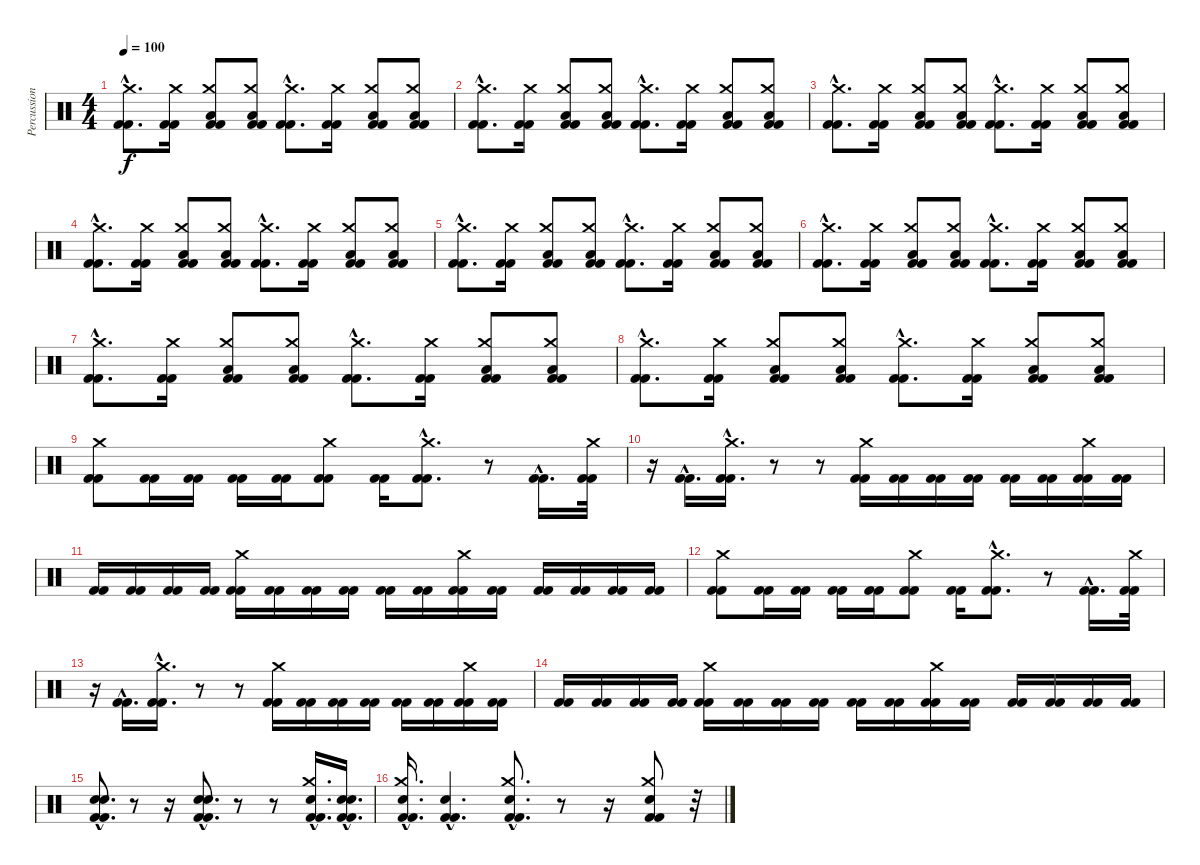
\track ("Percussion" "Percussion") {instrument percussion}
\staff {score}
\articulation defaults
\ts (4 4)
\tempo 100
\clef neutral
\ks c
("Kick (hit) 2"{hac} "Kick (hit) 2"{hac} "Crash medium (hit)"{hac}).8{d dy f} ("Kick (hit) 2" "Kick (hit) 2" "Crash medium (hit)").16 ("Kick (hit) 2" "Kick (hit) 2" "Low Tom (hit)" "Crash medium (hit)").8 ("Kick (hit) 2" "Kick (hit) 2" "Low Tom (hit)" "Crash medium (hit)").8 ("Kick (hit) 2"{hac} "Kick (hit) 2"{hac} "Crash medium (hit)"{hac}).8{d} ("Kick (hit) 2" "Kick (hit) 2" "Crash medium (hit)").16 ("Kick (hit) 2" "Kick (hit) 2" "Low Tom (hit)" "Crash medium (hit)").8 ("Kick (hit) 2" "Kick (hit) 2" "Low Tom (hit)" "Crash medium (hit)").8 |
("Kick (hit) 2"{hac} "Kick (hit) 2"{hac} "Crash medium (hit)"{hac}).8{d} ("Kick (hit) 2" "Kick (hit) 2" "Crash medium (hit)").16 ("Kick (hit) 2" "Kick (hit) 2" "Low Tom (hit)" "Crash medium (hit)").8 ("Kick (hit) 2" "Kick (hit) 2" "Low Tom (hit)" "Crash medium (hit)").8 ("Kick (hit) 2"{hac} "Kick (hit) 2"{hac} "Crash medium (hit)"{hac}).8{d} ("Kick (hit) 2" "Kick (hit) 2" "Crash medium (hit)").16 ("Kick (hit) 2" "Kick (hit) 2" "Low Tom (hit)" "Crash medium (hit)").8 ("Kick (hit) 2" "Kick (hit) 2" "Low Tom (hit)" "Crash medium (hit)").8 |
("Kick (hit) 2"{hac} "Kick (hit) 2"{hac} "Crash medium (hit)"{hac}).8{d} ("Kick (hit) 2" "Kick (hit) 2" "Crash medium (hit)").16 ("Kick (hit) 2" "Kick (hit) 2" "Low Tom (hit)" "Crash medium (hit)").8 ("Kick (hit) 2" "Kick (hit) 2" "Low Tom (hit)" "Crash medium (hit)").8 ("Kick (hit) 2"{hac} "Kick (hit) 2"{hac} "Crash medium (hit)"{hac}).8{d} ("Kick (hit) 2" "Kick (hit) 2" "Crash medium (hit)").16 ("Kick (hit) 2" "Kick (hit) 2" "Low Tom (hit)" "Crash medium (hit)").8 ("Kick (hit) 2" "Kick (hit) 2" "Low Tom (hit)" "Crash medium (hit)").8 |
("Kick (hit) 2"{hac} "Kick (hit) 2"{hac} "Crash medium (hit)"{hac}).8{d} ("Kick (hit) 2" "Kick (hit) 2" "Crash medium (hit)").16 ("Kick (hit) 2" "Kick (hit) 2" "Low Tom (hit)" "Crash medium (hit)").8 ("Kick (hit) 2" "Kick (hit) 2" "Low Tom (hit)" "Crash medium (hit)").8 ("Kick (hit) 2"{hac} "Kick (hit) 2"{hac} "Crash medium (hit)"{hac}).8{d} ("Kick (hit) 2" "Kick (hit) 2" "Crash medium (hit)").16 ("Kick (hit) 2" "Kick (hit) 2" "Low Tom (hit)" "Crash medium (hit)").8 ("Kick (hit) 2" "Kick (hit) 2" "Low Tom (hit)" "Crash medium (hit)").8 |
("Kick (hit) 2"{hac} "Kick (hit) 2"{hac} "Crash medium (hit)"{hac}).8{d} ("Kick (hit) 2" "Kick (hit) 2" "Crash medium (hit)").16 ("Kick (hit) 2" "Kick (hit) 2" "Low Tom (hit)" "Crash medium (hit)").8 ("Kick (hit) 2" "Kick (hit) 2" "Low Tom (hit)" "Crash medium (hit)").8 ("Kick (hit) 2"{hac} "Kick (hit) 2"{hac} "Crash medium (hit)"{hac}).8{d} ("Kick (hit) 2" "Kick (hit) 2" "Crash medium (hit)").16 ("Kick (hit) 2" "Kick (hit) 2" "Low Tom (hit)" "Crash medium (hit)").8 ("Kick (hit) 2" "Kick (hit) 2" "Low Tom (hit)" "Crash medium (hit)").8 |
("Kick (hit) 2"{hac} "Kick (hit) 2"{hac} "Crash medium (hit)"{hac}).8{d} ("Kick (hit) 2" "Kick (hit) 2" "Crash medium (hit)").16 ("Kick (hit) 2" "Kick (hit) 2" "Low Tom (hit)" "Crash medium (hit)").8 ("Kick (hit) 2" "Kick (hit) 2" "Low Tom (hit)" "Crash medium (hit)").8 ("Kick (hit) 2"{hac} "Kick (hit) 2"{hac} "Crash medium (hit)"{hac}).8{d} ("Kick (hit) 2" "Kick (hit) 2" "Crash medium (hit)").16 ("Kick (hit) 2" "Kick (hit) 2" "Low Tom (hit)" "Crash medium (hit)").8 ("Kick (hit) 2" "Kick (hit) 2" "Low Tom (hit)" "Crash medium (hit)").8 |
("Kick (hit) 2"{hac} "Kick (hit) 2"{hac} "Crash medium (hit)"{hac}).8{d} ("Kick (hit) 2" "Kick (hit) 2" "Crash medium (hit)").16 ("Kick (hit) 2" "Kick (hit) 2" "Low Tom (hit)" "Crash medium (hit)").8 ("Kick (hit) 2" "Kick (hit) 2" "Low Tom (hit)" "Crash medium (hit)").8 ("Kick (hit) 2"{hac} "Kick (hit) 2"{hac} "Crash medium (hit)"{hac}).8{d} ("Kick (hit) 2" "Kick (hit) 2" "Crash medium (hit)").16 ("Kick (hit) 2" "Kick (hit) 2" "Low Tom (hit)" "Crash medium (hit)").8 ("Kick (hit) 2" "Kick (hit) 2" "Low Tom (hit)" "Crash medium (hit)").8 |
("Kick (hit) 2"{hac} "Kick (hit) 2"{hac} "Crash medium (hit)"{hac}).8{d} ("Kick (hit) 2" "Kick (hit) 2" "Crash medium (hit)").16 ("Kick (hit) 2" "Kick (hit) 2" "Low Tom (hit)" "Crash medium (hit)").8 ("Kick (hit) 2" "Kick (hit) 2" "Low Tom (hit)" "Crash medium (hit)").8 ("Kick (hit) 2"{hac} "Kick (hit) 2"{hac} "Crash medium (hit)"{hac}).8{d} ("Kick (hit) 2" "Kick (hit) 2" "Crash medium (hit)").16 ("Kick (hit) 2" "Kick (hit) 2" "Low Tom (hit)" "Crash medium (hit)").8 ("Kick (hit) 2" "Kick (hit) 2" "Low Tom (hit)" "Crash medium (hit)").8 |
("Kick (hit) 2" "Kick (hit) 2" "Crash medium (hit)").8 ("Kick (hit) 2" "Kick (hit) 2").16 ("Kick (hit) 2" "Kick (hit) 2").16 ("Kick (hit) 2" "Kick (hit) 2").16 ("Kick (hit) 2" "Kick (hit) 2").16 ("Kick (hit) 2" "Kick (hit) 2" "Crash medium (hit)").8 ("Kick (hit) 2" "Kick (hit) 2").16 ("Kick (hit) 2"{hac} "Kick (hit) 2"{hac} "Crash medium (hit)"{hac}).8{d} r.8 ("Kick (hit) 2"{hac} "Kick (hit) 2"{hac}).16{d} ("Kick (hit) 2" "Kick (hit) 2" "Crash medium (hit)").32 |
r.16 ("Kick (hit) 2"{hac} "Kick (hit) 2"{hac}).16{d} ("Kick (hit) 2"{hac} "Kick (hit) 2"{hac} "Crash medium (hit)"{hac}).16{d} r.8 r.8 ("Kick (hit) 2" "Kick (hit) 2" "Crash medium (hit)").16 ("Kick (hit) 2" "Kick (hit) 2").16 ("Kick (hit) 2" "Kick (hit) 2").16 ("Kick (hit) 2" "Kick (hit) 2").16 ("Kick (hit) 2" "Kick (hit) 2").16 ("Kick (hit) 2" "Kick (hit) 2").16 ("Kick (hit) 2" "Kick (hit) 2" "Crash medium (hit)").16 ("Kick (hit) 2" "Kick (hit) 2").16 |
("Kick (hit) 2" "Kick (hit) 2").16 ("Kick (hit) 2" "Kick (hit) 2").16 ("Kick (hit) 2" "Kick (hit) 2").16 ("Kick (hit) 2" "Kick (hit) 2").16 ("Kick (hit) 2" "Kick (hit) 2" "Crash medium (hit)").16 ("Kick (hit) 2" "Kick (hit) 2").16 ("Kick (hit) 2" "Kick (hit) 2").16 ("Kick (hit) 2" "Kick (hit) 2").16 ("Kick (hit) 2" "Kick (hit) 2").16 ("Kick (hit) 2" "Kick (hit) 2").16 ("Kick (hit) 2" "Kick (hit) 2" "Crash medium (hit)").16 ("Kick (hit) 2" "Kick (hit) 2").16 ("Kick (hit) 2" "Kick (hit) 2").16 ("Kick (hit) 2" "Kick (hit) 2").16 ("Kick (hit) 2" "Kick (hit) 2").16 ("Kick (hit) 2" "Kick (hit) 2").16 |
("Kick (hit) 2" "Kick (hit) 2" "Crash medium (hit)").8 ("Kick (hit) 2" "Kick (hit) 2").16 ("Kick (hit) 2" "Kick (hit) 2").16 ("Kick (hit) 2" "Kick (hit) 2").16 ("Kick (hit) 2" "Kick (hit) 2").16 ("Kick (hit) 2" "Kick (hit) 2" "Crash medium (hit)").8 ("Kick (hit) 2" "Kick (hit) 2").16 ("Kick (hit) 2"{hac} "Kick (hit) 2"{hac} "Crash medium (hit)"{hac}).8{d} r.8 ("Kick (hit) 2"{hac} "Kick (hit) 2"{hac}).16{d} ("Kick (hit) 2" "Kick (hit) 2" "Crash medium (hit)").32 |
r.16 ("Kick (hit) 2"{hac} "Kick (hit) 2"{hac}).16{d} ("Kick (hit) 2"{hac} "Kick (hit) 2"{hac} "Crash medium (hit)"{hac}).16{d} r.8 r.8 ("Kick (hit) 2" "Kick (hit) 2" "Crash medium (hit)").16 ("Kick (hit) 2" "Kick (hit) 2").16 ("Kick (hit) 2" "Kick (hit) 2").16 ("Kick (hit) 2" "Kick (hit) 2").16 ("Kick (hit) 2" "Kick (hit) 2").16 ("Kick (hit) 2" "Kick (hit) 2").16 ("Kick (hit) 2" "Kick (hit) 2" "Crash medium (hit)").16 ("Kick (hit) 2" "Kick (hit) 2").16 |
("Kick (hit) 2" "Kick (hit) 2").16 ("Kick (hit) 2" "Kick (hit) 2").16 ("Kick (hit) 2" "Kick (hit) 2").16 ("Kick (hit) 2" "Kick (hit) 2").16 ("Kick (hit) 2" "Kick (hit) 2" "Crash medium (hit)").16 ("Kick (hit) 2" "Kick (hit) 2").16 ("Kick (hit) 2" "Kick (hit) 2").16 ("Kick (hit) 2" "Kick (hit) 2").16 ("Kick (hit) 2" "Kick (hit) 2").16 ("Kick (hit) 2" "Kick (hit) 2").16 ("Kick (hit) 2" "Kick (hit) 2" "Crash medium (hit)").16 ("Kick (hit) 2" "Kick (hit) 2").16 ("Kick (hit) 2" "Kick (hit) 2").16 ("Kick (hit) 2" "Kick (hit) 2").16 ("Kick (hit) 2" "Kick (hit) 2").16 ("Kick (hit) 2" "Kick (hit) 2").16 |
("Kick (hit) 2"{hac} "Kick (hit) 2"{hac} "Metronome (bell)"{hac} "Metronome (bell)"{hac}).8{d} r.8 r.16 ("Kick (hit) 2"{hac} "Kick (hit) 2"{hac} "Metronome (bell)"{hac} "Metronome (bell)"{hac}).8{d} r.8 r.8 ("Kick (hit) 2"{hac} "Kick (hit) 2"{hac} "Metronome (bell)"{hac} "Crash medium (hit)"{hac}).16{d} ("Kick (hit) 2"{hac} "Kick (hit) 2"{hac} "Metronome (bell)"{hac} "Metronome (bell)"{hac}).16{d} |
("Kick (hit) 2"{hac} "Kick (hit) 2"{hac} "Metronome (bell)"{hac} "Crash medium (hit)"{hac}).16{d} ("Kick (hit) 2"{hac} "Kick (hit) 2"{hac} "Metronome (bell)"{hac}).4{d} ("Kick (hit) 2"{hac} "Kick (hit) 2"{hac} "Metronome (bell)"{hac} "Crash medium (hit)"{hac}).8{d} r.8 r.16 ("Kick (hit) 2" "Kick (hit) 2" "Metronome (bell)" "Crash medium (hit)").8 r.32
